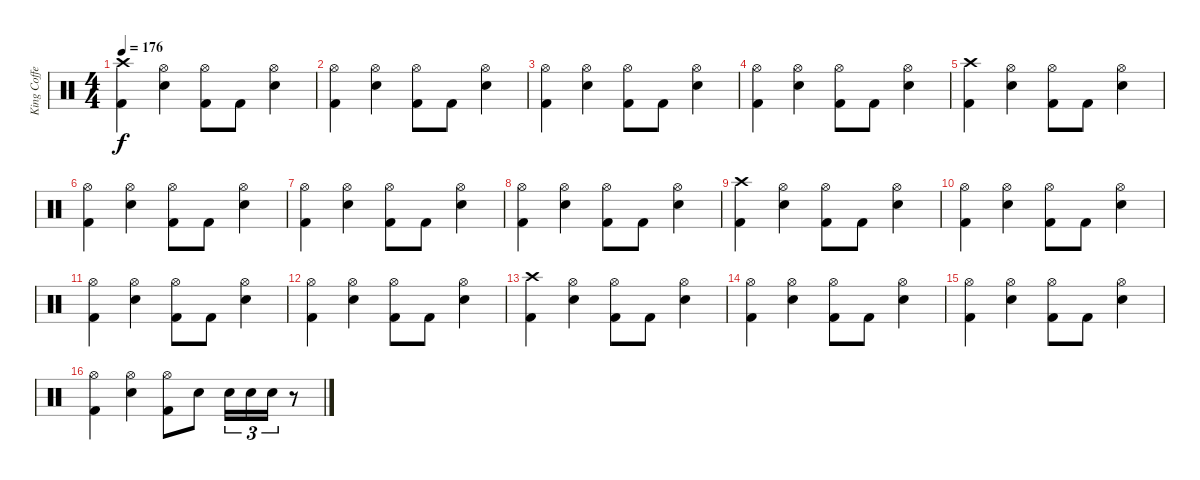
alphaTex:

\track ("King Coffey" "King Coffe") {instrument percussion}
\staff {score}
\articulation defaults
\ts (4 4)
\tempo 176
\clef neutral
\ks c
("Crash high (hit)" "Kick (hit) 2").4{dy f} ("Hi-Hat (open)" "Snare (hit) 2").4 ("Hi-Hat (open)" "Kick (hit) 2").8 "Kick (hit) 2".8 ("Hi-Hat (open)" "Snare (hit) 2").4 |
("Hi-Hat (open)" "Kick (hit) 2").4 ("Hi-Hat (open)" "Snare (hit) 2").4 ("Hi-Hat (open)" "Kick (hit) 2").8 "Kick (hit) 2".8 ("Hi-Hat (open)" "Snare (hit) 2").4 |
("Hi-Hat (open)" "Kick (hit) 2").4 ("Hi-Hat (open)" "Snare (hit) 2").4 ("Hi-Hat (open)" "Kick (hit) 2").8 "Kick (hit) 2".8 ("Hi-Hat (open)" "Snare (hit) 2").4 |
("Hi-Hat (open)" "Kick (hit) 2").4 ("Hi-Hat (open)" "Snare (hit) 2").4 ("Hi-Hat (open)" "Kick (hit) 2").8 "Kick (hit) 2".8 ("Hi-Hat (open)" "Snare (hit) 2").4 |
("Crash high (hit)" "Kick (hit) 2").4 ("Hi-Hat (open)" "Snare (hit) 2").4 ("Hi-Hat (open)" "Kick (hit) 2").8 "Kick (hit) 2".8 ("Hi-Hat (open)" "Snare (hit) 2").4 |
("Hi-Hat (open)" "Kick (hit) 2").4 ("Hi-Hat (open)" "Snare (hit) 2").4 ("Hi-Hat (open)" "Kick (hit) 2").8 "Kick (hit) 2".8 ("Hi-Hat (open)" "Snare (hit) 2").4 |
("Hi-Hat (open)" "Kick (hit) 2").4 ("Hi-Hat (open)" "Snare (hit) 2").4 ("Hi-Hat (open)" "Kick (hit) 2").8 "Kick (hit) 2".8 ("Hi-Hat (open)" "Snare (hit) 2").4 |
("Hi-Hat (open)" "Kick (hit) 2").4 ("Hi-Hat (open)" "Snare (hit) 2").4 ("Hi-Hat (open)" "Kick (hit) 2").8 "Kick (hit) 2".8 ("Hi-Hat (open)" "Snare (hit) 2").4 |
("Crash high (hit)" "Kick (hit) 2").4 ("Hi-Hat (open)" "Snare (hit) 2").4 ("Hi-Hat (open)" "Kick (hit) 2").8 "Kick (hit) 2".8 ("Hi-Hat (open)" "Snare (hit) 2").4 |
("Hi-Hat (open)" "Kick (hit) 2").4 ("Hi-Hat (open)" "Snare (hit) 2").4 ("Hi-Hat (open)" "Kick (hit) 2").8 "Kick (hit) 2".8 ("Hi-Hat (open)" "Snare (hit) 2").4 |
("Hi-Hat (open)" "Kick (hit) 2").4 ("Hi-Hat (open)" "Snare (hit) 2").4 ("Hi-Hat (open)" "Kick (hit) 2").8 "Kick (hit) 2".8 ("Hi-Hat (open)" "Snare (hit) 2").4 |
("Hi-Hat (open)" "Kick (hit) 2").4 ("Hi-Hat (open)" "Snare (hit) 2").4 ("Hi-Hat (open)" "Kick (hit) 2").8 "Kick (hit) 2".8 ("Hi-Hat (open)" "Snare (hit) 2").4 |
("Crash high (hit)" "Kick (hit) 2").4 ("Hi-Hat (open)" "Snare (hit) 2").4 ("Hi-Hat (open)" "Kick (hit) 2").8 "Kick (hit) 2".8 ("Hi-Hat (open)" "Snare (hit) 2").4 |
("Hi-Hat (open)" "Kick (hit) 2").4 ("Hi-Hat (open)" "Snare (hit) 2").4 ("Hi-Hat (open)" "Kick (hit) 2").8 "Kick (hit) 2".8 ("Hi-Hat (open)" "Snare (hit) 2").4 |
("Hi-Hat (open)" "Kick (hit) 2").4 ("Hi-Hat (open)" "Snare (hit) 2").4 ("Hi-Hat (open)" "Kick (hit) 2").8 "Kick (hit) 2".8 ("Hi-Hat (open)" "Snare (hit) 2").4 |
("Hi-Hat (open)" "Kick (hit) 2").4 ("Hi-Hat (open)" "Snare (hit) 2").4 ("Hi-Hat (open)" "Kick (hit) 2").8 "Snare (hit) 2".8 "Snare (hit) 2".16{tu (3 2)} "Snare (hit) 2".16{tu (3 2)} "Snare (hit) 2".16{tu (3 2)} r.8
